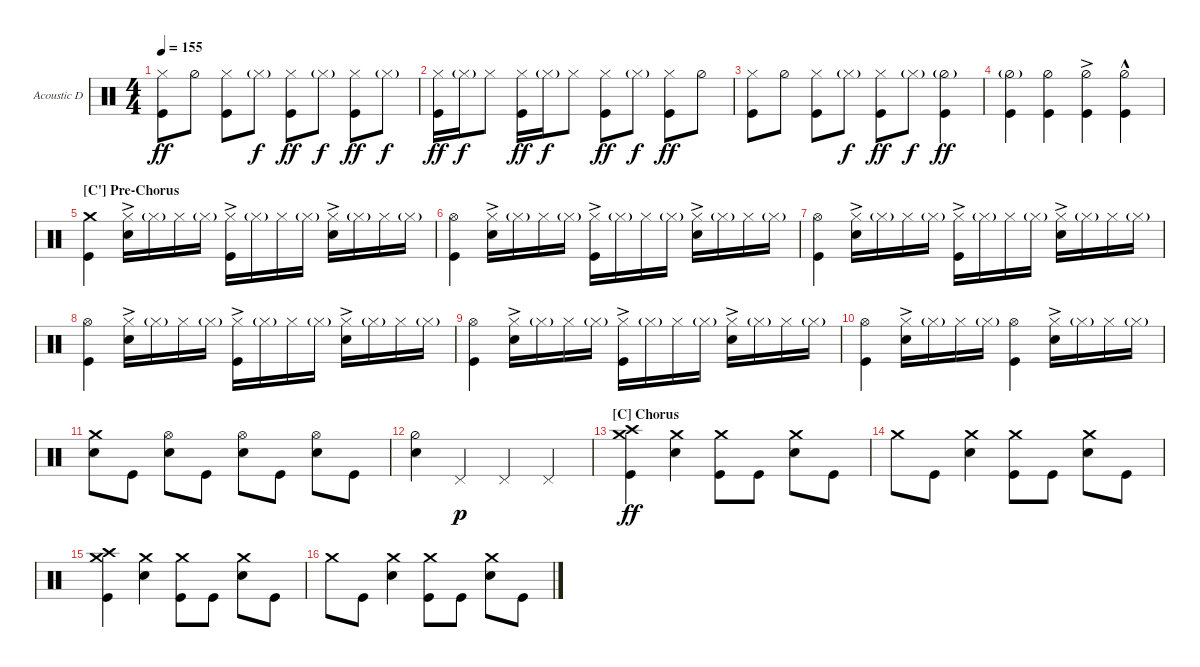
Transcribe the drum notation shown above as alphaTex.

\defaultSystemsLayout 4
\bracketExtendMode groupsimilarinstruments
\firstSystemTrackNameOrientation horizontal
\otherSystemsTrackNameOrientation horizontal
\track ("Acoustic Drums" "Acoustic D") {instrument percussion}
\staff {score}
\articulation defaults
\ts (4 4)
\tempo 155
\clef neutral
\ks c
("Kick (hit)" "Hi-Hat (closed)").8{dy ff} "Hi-Hat (half)".8 ("Kick (hit)" "Hi-Hat (closed)").8 "Hi-Hat (closed)"{g}.8{dy f} ("Kick (hit)" "Hi-Hat (closed)").8{dy ff} "Hi-Hat (closed)"{g}.8{dy f} ("Kick (hit)" "Hi-Hat (closed)").8{dy ff} "Hi-Hat (closed)"{g}.8{dy f} |
("Kick (hit)" "Hi-Hat (closed)").16{dy ff} "Hi-Hat (closed)"{g}.16{dy f} "Hi-Hat (closed)".8 ("Kick (hit)" "Hi-Hat (closed)").16{dy ff} "Hi-Hat (closed)"{g}.16{dy f} "Hi-Hat (closed)".8 ("Kick (hit)" "Hi-Hat (closed)").8{dy ff} "Hi-Hat (closed)"{g}.8{dy f} ("Kick (hit)" "Hi-Hat (closed)").8{dy ff} "Hi-Hat (half)".8 |
("Kick (hit)" "Hi-Hat (closed)").8 "Hi-Hat (half)".8 ("Kick (hit)" "Hi-Hat (closed)").8 "Hi-Hat (closed)"{g}.8{dy f} ("Kick (hit)" "Hi-Hat (closed)").8{dy ff} "Hi-Hat (closed)"{g}.8{dy f} ("Kick (hit)" "Hi-Hat (half)"{g}).4{dy ff} |
("Kick (hit)" "Hi-Hat (half)"{g}).4 ("Kick (hit)" "Hi-Hat (half)").4 ("Kick (hit)" "Hi-Hat (half)"{ac}).4 ("Kick (hit)" "Hi-Hat (half)"{hac}).4 |
\section ("C'" "Pre-Chorus")
("Kick (hit)" "Crash medium (hit)").4 ("Snare (hit) 2" "Hi-Hat (closed)"{ac}).16 "Hi-Hat (closed)"{g}.16 "Hi-Hat (closed)".16 "Hi-Hat (closed)"{g}.16 ("Kick (hit)" "Hi-Hat (closed)"{ac}).16 "Hi-Hat (closed)"{g}.16 "Hi-Hat (closed)".16 "Hi-Hat (closed)"{g}.16 ("Snare (hit) 2" "Hi-Hat (closed)"{ac}).16 "Hi-Hat (closed)"{g}.16 "Hi-Hat (closed)".16 "Hi-Hat (closed)"{g}.16 |
("Kick (hit)" "Hi-Hat (open)").4 ("Snare (hit) 2" "Hi-Hat (closed)"{ac}).16 "Hi-Hat (closed)"{g}.16 "Hi-Hat (closed)".16 "Hi-Hat (closed)"{g}.16 ("Kick (hit)" "Hi-Hat (closed)"{ac}).16 "Hi-Hat (closed)"{g}.16 "Hi-Hat (closed)".16 "Hi-Hat (closed)"{g}.16 ("Snare (hit) 2" "Hi-Hat (closed)"{ac}).16 "Hi-Hat (closed)"{g}.16 "Hi-Hat (closed)".16 "Hi-Hat (closed)"{g}.16 |
("Kick (hit)" "Hi-Hat (open)").4 ("Snare (hit) 2" "Hi-Hat (closed)"{ac}).16 "Hi-Hat (closed)"{g}.16 "Hi-Hat (closed)".16 "Hi-Hat (closed)"{g}.16 ("Kick (hit)" "Hi-Hat (closed)"{ac}).16 "Hi-Hat (closed)"{g}.16 "Hi-Hat (closed)".16 "Hi-Hat (closed)"{g}.16 ("Snare (hit) 2" "Hi-Hat (closed)"{ac}).16 "Hi-Hat (closed)"{g}.16 "Hi-Hat (closed)".16 "Hi-Hat (closed)"{g}.16 |
("Kick (hit)" "Hi-Hat (open)").4 ("Snare (hit) 2" "Hi-Hat (closed)"{ac}).16 "Hi-Hat (closed)"{g}.16 "Hi-Hat (closed)".16 "Hi-Hat (closed)"{g}.16 ("Kick (hit)" "Hi-Hat (closed)"{ac}).16 "Hi-Hat (closed)"{g}.16 "Hi-Hat (closed)".16 "Hi-Hat (closed)"{g}.16 ("Snare (hit) 2" "Hi-Hat (closed)"{ac}).16 "Hi-Hat (closed)"{g}.16 "Hi-Hat (closed)".16 "Hi-Hat (closed)"{g}.16 |
("Kick (hit)" "Hi-Hat (open)").4 ("Snare (hit) 2" "Hi-Hat (closed)"{ac}).16 "Hi-Hat (closed)"{g}.16 "Hi-Hat (closed)".16 "Hi-Hat (closed)"{g}.16 ("Kick (hit)" "Hi-Hat (closed)"{ac}).16 "Hi-Hat (closed)"{g}.16 "Hi-Hat (closed)".16 "Hi-Hat (closed)"{g}.16 ("Snare (hit) 2" "Hi-Hat (closed)"{ac}).16 "Hi-Hat (closed)"{g}.16 "Hi-Hat (closed)".16 "Hi-Hat (closed)"{g}.16 |
("Kick (hit)" "Hi-Hat (open)").4 ("Snare (hit) 2" "Hi-Hat (closed)"{ac}).16 "Hi-Hat (closed)"{g}.16 "Hi-Hat (closed)".16 "Hi-Hat (closed)"{g}.16 ("Kick (hit)" "Hi-Hat (open)").4 ("Snare (hit) 2" "Hi-Hat (closed)"{ac}).16 "Hi-Hat (closed)"{g}.16 "Hi-Hat (closed)".16 "Hi-Hat (closed)"{g}.16 |
("Snare (hit) 2" "Crash medium (hit)").8 "Kick (hit)".8 ("Hi-Hat (open)" "Snare (hit) 2").8 "Kick (hit)".8 ("Hi-Hat (open)" "Snare (hit) 2").8 "Kick (hit)".8 ("Hi-Hat (open)" "Snare (hit) 2").8 "Kick (hit)".8 |
("Hi-Hat (half)" "Snare (hit) 2").4 "Pedal Hi-Hat (hit)".4{dy p} "Pedal Hi-Hat (hit)".4 "Pedal Hi-Hat (hit)".4 |
\section ("C" "Chorus")
("Crash high (hit)" "Crash medium (hit)" "Kick (hit)").4{dy ff} ("Crash medium (hit)" "Snare (hit) 2").4 ("Crash medium (hit)" "Kick (hit)").8 "Kick (hit)".8 ("Crash medium (hit)" "Snare (hit) 2").8 "Kick (hit)".8 |
"Crash medium (hit)".8 "Kick (hit)".8 ("Crash medium (hit)" "Snare (hit) 2").4 ("Crash medium (hit)" "Kick (hit)").8 "Kick (hit)".8 ("Crash medium (hit)" "Snare (hit) 2").8 "Kick (hit)".8 |
("Crash medium (hit)" "Kick (hit)" "Crash high (hit)").4 ("Crash medium (hit)" "Snare (hit) 2").4 ("Crash medium (hit)" "Kick (hit)").8 "Kick (hit)".8 ("Crash medium (hit)" "Snare (hit) 2").8 "Kick (hit)".8 |
"Crash medium (hit)".8 "Kick (hit)".8 ("Crash medium (hit)" "Snare (hit) 2").4 ("Crash medium (hit)" "Kick (hit)").8 "Kick (hit)".8 ("Crash medium (hit)" "Snare (hit) 2").8 "Kick (hit)".8
